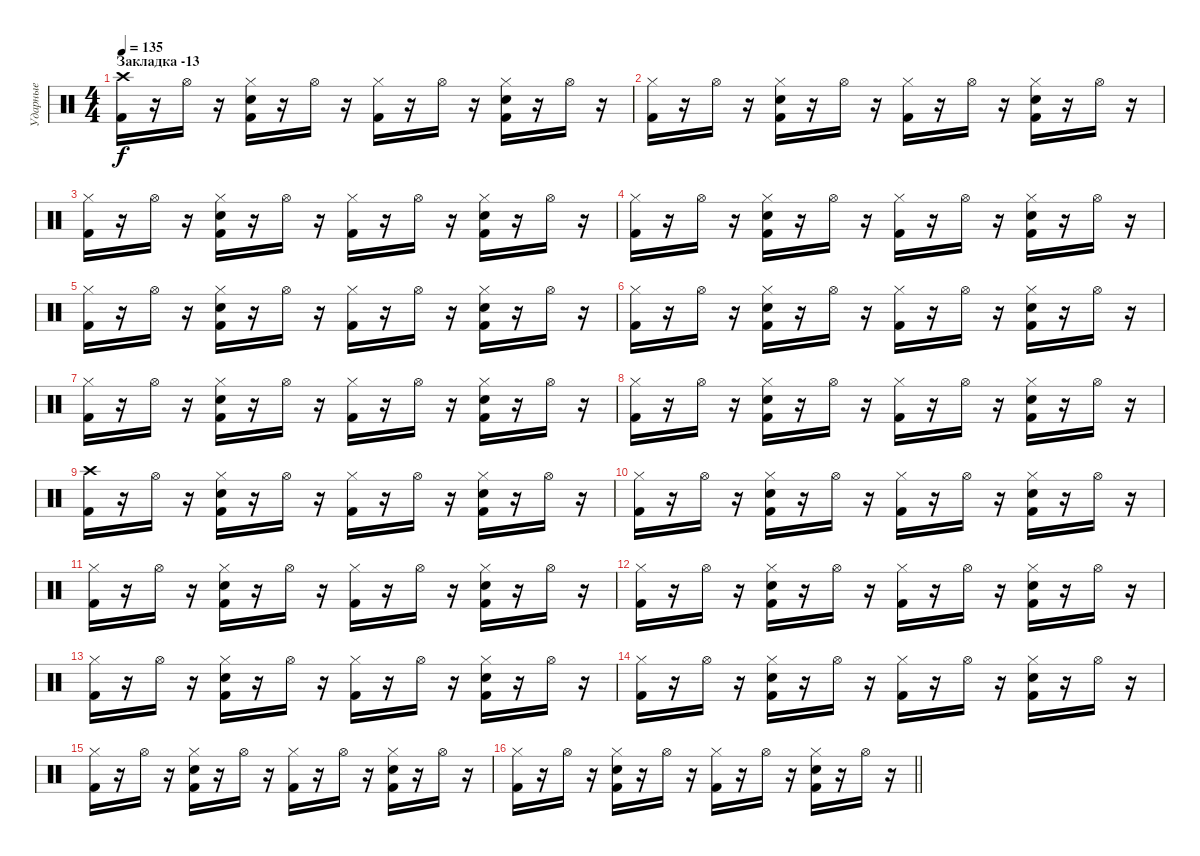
\track ("Ударные" "Ударные") {instrument percussion}
\staff {score}
\articulation defaults
\ts (4 4)
\section ("" "Закладка -13")
\tempo 135
\clef neutral
\ks c
("Crash high (hit)" "Kick (hit) 2").16{dy f} r.16 "Hi-Hat (open)".16 r.16 ("Hi-Hat (closed)" "Electric Snare (hit)" "Kick (hit) 2").16 r.16 "Hi-Hat (open)".16 r.16 ("Hi-Hat (closed)" "Kick (hit) 2").16 r.16 "Hi-Hat (open)".16 r.16 ("Hi-Hat (closed)" "Electric Snare (hit)" "Kick (hit) 2").16 r.16 "Hi-Hat (open)".16 r.16 |
("Hi-Hat (closed)" "Kick (hit) 2").16 r.16 "Hi-Hat (open)".16 r.16 ("Hi-Hat (closed)" "Electric Snare (hit)" "Kick (hit) 2").16 r.16 "Hi-Hat (open)".16 r.16 ("Hi-Hat (closed)" "Kick (hit) 2").16 r.16 "Hi-Hat (open)".16 r.16 ("Hi-Hat (closed)" "Electric Snare (hit)" "Kick (hit) 2").16 r.16 "Hi-Hat (open)".16 r.16 |
("Hi-Hat (closed)" "Kick (hit) 2").16 r.16 "Hi-Hat (open)".16 r.16 ("Hi-Hat (closed)" "Electric Snare (hit)" "Kick (hit) 2").16 r.16 "Hi-Hat (open)".16 r.16 ("Hi-Hat (closed)" "Kick (hit) 2").16 r.16 "Hi-Hat (open)".16 r.16 ("Hi-Hat (closed)" "Electric Snare (hit)" "Kick (hit) 2").16 r.16 "Hi-Hat (open)".16 r.16 |
("Hi-Hat (closed)" "Kick (hit) 2").16 r.16 "Hi-Hat (open)".16 r.16 ("Hi-Hat (closed)" "Electric Snare (hit)" "Kick (hit) 2").16 r.16 "Hi-Hat (open)".16 r.16 ("Hi-Hat (closed)" "Kick (hit) 2").16 r.16 "Hi-Hat (open)".16 r.16 ("Hi-Hat (closed)" "Electric Snare (hit)" "Kick (hit) 2").16 r.16 "Hi-Hat (open)".16 r.16 |
("Hi-Hat (closed)" "Kick (hit) 2").16 r.16 "Hi-Hat (open)".16 r.16 ("Hi-Hat (closed)" "Electric Snare (hit)" "Kick (hit) 2").16 r.16 "Hi-Hat (open)".16 r.16 ("Hi-Hat (closed)" "Kick (hit) 2").16 r.16 "Hi-Hat (open)".16 r.16 ("Hi-Hat (closed)" "Electric Snare (hit)" "Kick (hit) 2").16 r.16 "Hi-Hat (open)".16 r.16 |
("Hi-Hat (closed)" "Kick (hit) 2").16 r.16 "Hi-Hat (open)".16 r.16 ("Hi-Hat (closed)" "Electric Snare (hit)" "Kick (hit) 2").16 r.16 "Hi-Hat (open)".16 r.16 ("Hi-Hat (closed)" "Kick (hit) 2").16 r.16 "Hi-Hat (open)".16 r.16 ("Hi-Hat (closed)" "Electric Snare (hit)" "Kick (hit) 2").16 r.16 "Hi-Hat (open)".16 r.16 |
("Hi-Hat (closed)" "Kick (hit) 2").16 r.16 "Hi-Hat (open)".16 r.16 ("Hi-Hat (closed)" "Electric Snare (hit)" "Kick (hit) 2").16 r.16 "Hi-Hat (open)".16 r.16 ("Hi-Hat (closed)" "Kick (hit) 2").16 r.16 "Hi-Hat (open)".16 r.16 ("Hi-Hat (closed)" "Electric Snare (hit)" "Kick (hit) 2").16 r.16 "Hi-Hat (open)".16 r.16 |
("Hi-Hat (closed)" "Kick (hit) 2").16 r.16 "Hi-Hat (open)".16 r.16 ("Hi-Hat (closed)" "Electric Snare (hit)" "Kick (hit) 2").16 r.16 "Hi-Hat (open)".16 r.16 ("Hi-Hat (closed)" "Kick (hit) 2").16 r.16 "Hi-Hat (open)".16 r.16 ("Hi-Hat (closed)" "Electric Snare (hit)" "Kick (hit) 2").16 r.16 "Hi-Hat (open)".16 r.16 |
("Crash high (hit)" "Kick (hit) 2").16 r.16 "Hi-Hat (open)".16 r.16 ("Hi-Hat (closed)" "Electric Snare (hit)" "Kick (hit) 2").16 r.16 "Hi-Hat (open)".16 r.16 ("Hi-Hat (closed)" "Kick (hit) 2").16 r.16 "Hi-Hat (open)".16 r.16 ("Hi-Hat (closed)" "Electric Snare (hit)" "Kick (hit) 2").16 r.16 "Hi-Hat (open)".16 r.16 |
("Hi-Hat (closed)" "Kick (hit) 2").16 r.16 "Hi-Hat (open)".16 r.16 ("Hi-Hat (closed)" "Electric Snare (hit)" "Kick (hit) 2").16 r.16 "Hi-Hat (open)".16 r.16 ("Hi-Hat (closed)" "Kick (hit) 2").16 r.16 "Hi-Hat (open)".16 r.16 ("Hi-Hat (closed)" "Electric Snare (hit)" "Kick (hit) 2").16 r.16 "Hi-Hat (open)".16 r.16 |
("Hi-Hat (closed)" "Kick (hit) 2").16 r.16 "Hi-Hat (open)".16 r.16 ("Hi-Hat (closed)" "Electric Snare (hit)" "Kick (hit) 2").16 r.16 "Hi-Hat (open)".16 r.16 ("Hi-Hat (closed)" "Kick (hit) 2").16 r.16 "Hi-Hat (open)".16 r.16 ("Hi-Hat (closed)" "Electric Snare (hit)" "Kick (hit) 2").16 r.16 "Hi-Hat (open)".16 r.16 |
("Hi-Hat (closed)" "Kick (hit) 2").16 r.16 "Hi-Hat (open)".16 r.16 ("Hi-Hat (closed)" "Electric Snare (hit)" "Kick (hit) 2").16 r.16 "Hi-Hat (open)".16 r.16 ("Hi-Hat (closed)" "Kick (hit) 2").16 r.16 "Hi-Hat (open)".16 r.16 ("Hi-Hat (closed)" "Electric Snare (hit)" "Kick (hit) 2").16 r.16 "Hi-Hat (open)".16 r.16 |
("Hi-Hat (closed)" "Kick (hit) 2").16 r.16 "Hi-Hat (open)".16 r.16 ("Hi-Hat (closed)" "Electric Snare (hit)" "Kick (hit) 2").16 r.16 "Hi-Hat (open)".16 r.16 ("Hi-Hat (closed)" "Kick (hit) 2").16 r.16 "Hi-Hat (open)".16 r.16 ("Hi-Hat (closed)" "Electric Snare (hit)" "Kick (hit) 2").16 r.16 "Hi-Hat (open)".16 r.16 |
("Hi-Hat (closed)" "Kick (hit) 2").16 r.16 "Hi-Hat (open)".16 r.16 ("Hi-Hat (closed)" "Electric Snare (hit)" "Kick (hit) 2").16 r.16 "Hi-Hat (open)".16 r.16 ("Hi-Hat (closed)" "Kick (hit) 2").16 r.16 "Hi-Hat (open)".16 r.16 ("Hi-Hat (closed)" "Electric Snare (hit)" "Kick (hit) 2").16 r.16 "Hi-Hat (open)".16 r.16 |
("Hi-Hat (closed)" "Kick (hit) 2").16 r.16 "Hi-Hat (open)".16 r.16 ("Hi-Hat (closed)" "Electric Snare (hit)" "Kick (hit) 2").16 r.16 "Hi-Hat (open)".16 r.16 ("Hi-Hat (closed)" "Kick (hit) 2").16 r.16 "Hi-Hat (open)".16 r.16 ("Hi-Hat (closed)" "Electric Snare (hit)" "Kick (hit) 2").16 r.16 "Hi-Hat (open)".16 r.16 |
\barLineRight lightlight
("Hi-Hat (closed)" "Kick (hit) 2").16 r.16 "Hi-Hat (open)".16 r.16 ("Hi-Hat (closed)" "Electric Snare (hit)" "Kick (hit) 2").16 r.16 "Hi-Hat (open)".16 r.16 ("Hi-Hat (closed)" "Kick (hit) 2").16 r.16 "Hi-Hat (open)".16 r.16 ("Hi-Hat (closed)" "Electric Snare (hit)" "Kick (hit) 2").16 r.16 "Hi-Hat (open)".16 r.16
